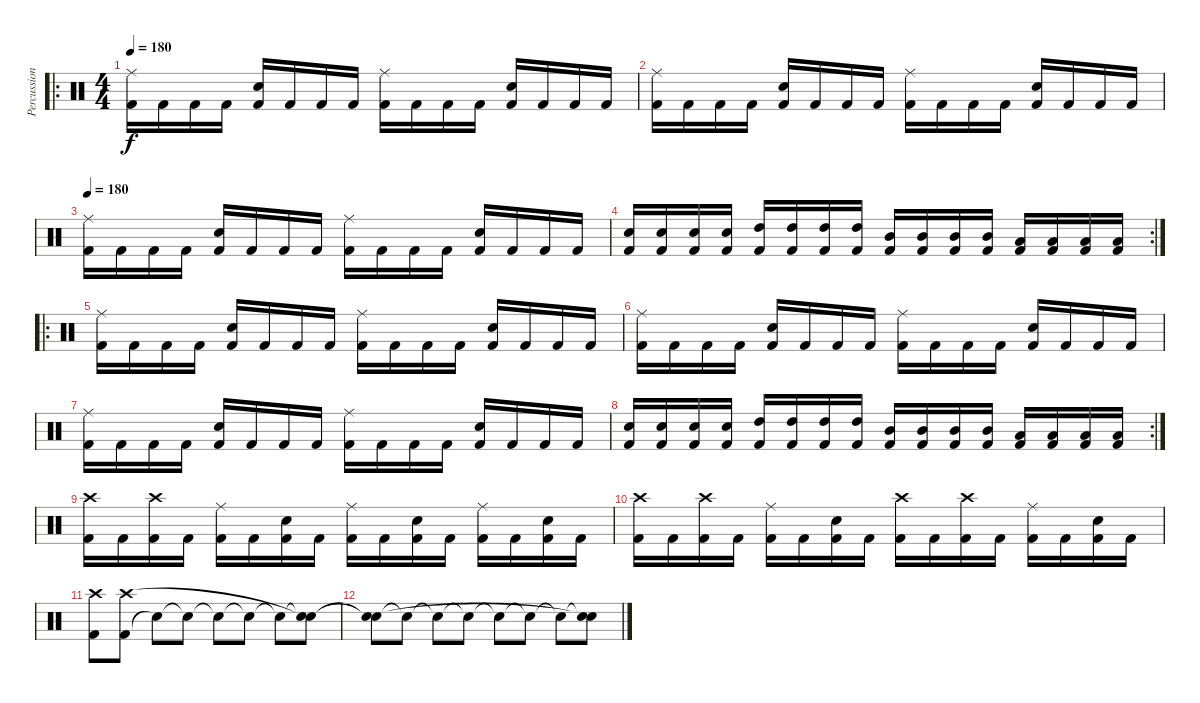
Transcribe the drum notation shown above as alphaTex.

\track ("Percussions" "Percussion") {instrument percussion}
\staff {score}
\articulation defaults
\ro
\ts (4 4)
\tempo 180
\clef neutral
\ks c
("Kick (hit) 2" "Ride (middle)").16{dy f} "Kick (hit) 2".16 "Kick (hit) 2".16 "Kick (hit) 2".16 ("Kick (hit) 2" "Electric Snare (hit)").16 "Kick (hit) 2".16 "Kick (hit) 2".16 "Kick (hit) 2".16 ("Kick (hit) 2" "Ride (middle)").16 "Kick (hit) 2".16 "Kick (hit) 2".16 "Kick (hit) 2".16 ("Kick (hit) 2" "Electric Snare (hit)").16 "Kick (hit) 2".16 "Kick (hit) 2".16 "Kick (hit) 2".16 |
("Kick (hit) 2" "Ride (middle)").16 "Kick (hit) 2".16 "Kick (hit) 2".16 "Kick (hit) 2".16 ("Kick (hit) 2" "Electric Snare (hit)").16 "Kick (hit) 2".16 "Kick (hit) 2".16 "Kick (hit) 2".16 ("Kick (hit) 2" "Ride (middle)").16 "Kick (hit) 2".16 "Kick (hit) 2".16 "Kick (hit) 2".16 ("Kick (hit) 2" "Electric Snare (hit)").16 "Kick (hit) 2".16 "Kick (hit) 2".16 "Kick (hit) 2".16 |
\tempo 180
("Kick (hit) 2" "Ride (middle)").16 "Kick (hit) 2".16 "Kick (hit) 2".16 "Kick (hit) 2".16 ("Kick (hit) 2" "Electric Snare (hit)").16 "Kick (hit) 2".16 "Kick (hit) 2".16 "Kick (hit) 2".16 ("Kick (hit) 2" "Ride (middle)").16 "Kick (hit) 2".16 "Kick (hit) 2".16 "Kick (hit) 2".16 ("Kick (hit) 2" "Electric Snare (hit)").16 "Kick (hit) 2".16 "Kick (hit) 2".16 "Kick (hit) 2".16 |
\rc 2
("Kick (hit) 2" "Electric Snare (hit)").16 ("Kick (hit) 2" "Electric Snare (hit)").16 ("Kick (hit) 2" "Electric Snare (hit)").16 ("Kick (hit) 2" "Electric Snare (hit)").16 ("Kick (hit) 2" "High Tom (hit)").16 ("Kick (hit) 2" "High Tom (hit)").16 ("Kick (hit) 2" "High Tom (hit)").16 ("Kick (hit) 2" "High Tom (hit)").16 ("Kick (hit) 2" "Mid Tom (hit)").16 ("Kick (hit) 2" "Mid Tom (hit)").16 ("Kick (hit) 2" "Mid Tom (hit)").16 ("Kick (hit) 2" "Mid Tom (hit)").16 ("Kick (hit) 2" "Low Tom (hit)").16 ("Kick (hit) 2" "Low Tom (hit)").16 ("Kick (hit) 2" "Low Tom (hit)").16 ("Kick (hit) 2" "Low Tom (hit)").16 |
\ro
("Kick (hit) 2" "Ride (middle)").16 "Kick (hit) 2".16 "Kick (hit) 2".16 "Kick (hit) 2".16 ("Kick (hit) 2" "Electric Snare (hit)").16 "Kick (hit) 2".16 "Kick (hit) 2".16 "Kick (hit) 2".16 ("Kick (hit) 2" "Ride (middle)").16 "Kick (hit) 2".16 "Kick (hit) 2".16 "Kick (hit) 2".16 ("Kick (hit) 2" "Electric Snare (hit)").16 "Kick (hit) 2".16 "Kick (hit) 2".16 "Kick (hit) 2".16 |
("Kick (hit) 2" "Ride (middle)").16 "Kick (hit) 2".16 "Kick (hit) 2".16 "Kick (hit) 2".16 ("Kick (hit) 2" "Electric Snare (hit)").16 "Kick (hit) 2".16 "Kick (hit) 2".16 "Kick (hit) 2".16 ("Kick (hit) 2" "Ride (middle)").16 "Kick (hit) 2".16 "Kick (hit) 2".16 "Kick (hit) 2".16 ("Kick (hit) 2" "Electric Snare (hit)").16 "Kick (hit) 2".16 "Kick (hit) 2".16 "Kick (hit) 2".16 |
("Kick (hit) 2" "Ride (middle)").16 "Kick (hit) 2".16 "Kick (hit) 2".16 "Kick (hit) 2".16 ("Kick (hit) 2" "Electric Snare (hit)").16 "Kick (hit) 2".16 "Kick (hit) 2".16 "Kick (hit) 2".16 ("Kick (hit) 2" "Ride (middle)").16 "Kick (hit) 2".16 "Kick (hit) 2".16 "Kick (hit) 2".16 ("Kick (hit) 2" "Electric Snare (hit)").16 "Kick (hit) 2".16 "Kick (hit) 2".16 "Kick (hit) 2".16 |
\rc 2
("Kick (hit) 2" "Electric Snare (hit)").16 ("Kick (hit) 2" "Electric Snare (hit)").16 ("Kick (hit) 2" "Electric Snare (hit)").16 ("Kick (hit) 2" "Electric Snare (hit)").16 ("Kick (hit) 2" "High Tom (hit)").16 ("Kick (hit) 2" "High Tom (hit)").16 ("Kick (hit) 2" "High Tom (hit)").16 ("Kick (hit) 2" "High Tom (hit)").16 ("Kick (hit) 2" "Mid Tom (hit)").16 ("Kick (hit) 2" "Mid Tom (hit)").16 ("Kick (hit) 2" "Mid Tom (hit)").16 ("Kick (hit) 2" "Mid Tom (hit)").16 ("Kick (hit) 2" "Low Tom (hit)").16 ("Kick (hit) 2" "Low Tom (hit)").16 ("Kick (hit) 2" "Low Tom (hit)").16 ("Kick (hit) 2" "Low Tom (hit)").16 |
("Kick (hit) 2" "Crash high (hit)").16 "Kick (hit) 2".16 ("Kick (hit) 2" "Crash high (hit)").16 "Kick (hit) 2".16 ("Kick (hit) 2" "Ride (middle)").16 "Kick (hit) 2".16 ("Kick (hit) 2" "Electric Snare (hit)").16 "Kick (hit) 2".16 ("Kick (hit) 2" "Ride (middle)").16 "Kick (hit) 2".16 ("Kick (hit) 2" "Electric Snare (hit)").16 "Kick (hit) 2".16 ("Kick (hit) 2" "Ride (middle)").16 "Kick (hit) 2".16 ("Kick (hit) 2" "Electric Snare (hit)").16 "Kick (hit) 2".16 |
("Kick (hit) 2" "Crash high (hit)").16 "Kick (hit) 2".16 ("Kick (hit) 2" "Crash high (hit)").16 "Kick (hit) 2".16 ("Kick (hit) 2" "Ride (middle)").16 "Kick (hit) 2".16 ("Kick (hit) 2" "Electric Snare (hit)").16 "Kick (hit) 2".16 ("Kick (hit) 2" "Crash high (hit)").16 "Kick (hit) 2".16 ("Kick (hit) 2" "Crash high (hit)").16 "Kick (hit) 2".16 ("Kick (hit) 2" "Ride (middle)").16 "Kick (hit) 2".16 ("Kick (hit) 2" "Electric Snare (hit)").16 "Kick (hit) 2".16 |
("Kick (hit) 2" "Crash high (hit)").8 ("Kick (hit) 2" "Crash high (hit)").8 "Snare (hit)"{t}.8 "Snare (hit)"{t}.8 "Snare (hit)"{t}.8 "Snare (hit)"{t}.8 "Snare (hit)"{t}.8 ("Snare (hit)"{t} "Snare (hit)"{t}).8 |
("Snare (hit)"{t} "Snare (hit)"{t}).8 "Snare (hit)"{t}.8 "Snare (hit)"{t}.8 "Snare (hit)"{t}.8 "Snare (hit)"{t}.8 "Snare (hit)"{t}.8 "Snare (hit)"{t}.8 ("Snare (hit)"{t} "Snare (hit)"{t}).8
